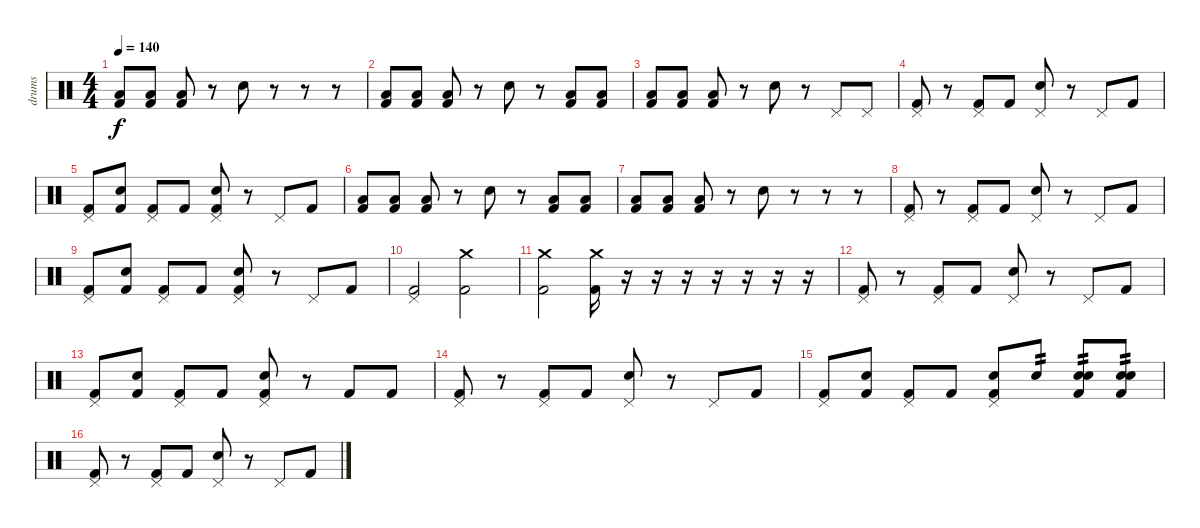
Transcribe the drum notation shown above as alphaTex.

\track ("drums" "drums") {instrument percussion}
\staff {score}
\articulation defaults
\ts (4 4)
\tempo 140
\clef neutral
\ks c
("Low Floor Tom (hit)" "Kick (hit) 2").8{dy f} ("Low Floor Tom (hit)" "Kick (hit) 2").8 ("Low Floor Tom (hit)" "Kick (hit) 2").8 r.8 "Snare (hit) 2".8 r.8 r.8 r.8 |
("Low Floor Tom (hit)" "Kick (hit) 2").8 ("Low Floor Tom (hit)" "Kick (hit) 2").8 ("Low Floor Tom (hit)" "Kick (hit) 2").8 r.8 "Snare (hit) 2".8 r.8 ("Low Floor Tom (hit)" "Kick (hit) 2").8 ("Low Floor Tom (hit)" "Kick (hit) 2").8 |
("Low Floor Tom (hit)" "Kick (hit) 2").8 ("Low Floor Tom (hit)" "Kick (hit) 2").8 ("Low Floor Tom (hit)" "Kick (hit) 2").8 r.8 "Snare (hit) 2".8 r.8 "Pedal Hi-Hat (hit)".8 "Pedal Hi-Hat (hit)".8 |
("Pedal Hi-Hat (hit)" "Kick (hit) 2").8 r.8 ("Pedal Hi-Hat (hit)" "Kick (hit) 2").8 "Kick (hit) 2".8 ("Pedal Hi-Hat (hit)" "Snare (hit) 2").8 r.8 "Pedal Hi-Hat (hit)".8 "Kick (hit) 2".8 |
("Kick (hit) 2" "Pedal Hi-Hat (hit)").8 ("Snare (hit) 2" "Kick (hit) 2").8 ("Kick (hit) 2" "Pedal Hi-Hat (hit)").8 "Kick (hit) 2".8 ("Snare (hit) 2" "Kick (hit) 2" "Pedal Hi-Hat (hit)").8 r.8 "Pedal Hi-Hat (hit)".8 "Kick (hit) 2".8 |
("Low Floor Tom (hit)" "Kick (hit) 2").8 ("Low Floor Tom (hit)" "Kick (hit) 2").8 ("Low Floor Tom (hit)" "Kick (hit) 2").8 r.8 "Snare (hit) 2".8 r.8 ("Low Floor Tom (hit)" "Kick (hit) 2").8 ("Low Floor Tom (hit)" "Kick (hit) 2").8 |
("Low Floor Tom (hit)" "Kick (hit) 2").8 ("Low Floor Tom (hit)" "Kick (hit) 2").8 ("Low Floor Tom (hit)" "Kick (hit) 2").8 r.8 "Snare (hit) 2".8 r.8 r.8 r.8 |
("Pedal Hi-Hat (hit)" "Kick (hit) 2").8 r.8 ("Pedal Hi-Hat (hit)" "Kick (hit) 2").8 "Kick (hit) 2".8 ("Pedal Hi-Hat (hit)" "Snare (hit) 2").8 r.8 "Pedal Hi-Hat (hit)".8 "Kick (hit) 2".8 |
("Kick (hit) 2" "Pedal Hi-Hat (hit)").8 ("Snare (hit) 2" "Kick (hit) 2").8 ("Kick (hit) 2" "Pedal Hi-Hat (hit)").8 "Kick (hit) 2".8 ("Snare (hit) 2" "Kick (hit) 2" "Pedal Hi-Hat (hit)").8 r.8 "Pedal Hi-Hat (hit)".8 "Kick (hit) 2".8 |
("Pedal Hi-Hat (hit)" "Kick (hit) 2").2 ("Crash medium (hit)" "Kick (hit) 2").2 |
("Crash medium (hit)" "Kick (hit) 2").2 ("Crash medium (hit)" "Kick (hit) 2").16 r.16 r.16 r.16 r.16 r.16 r.16 r.16 |
("Pedal Hi-Hat (hit)" "Kick (hit) 2").8 r.8 ("Pedal Hi-Hat (hit)" "Kick (hit) 2").8 "Kick (hit) 2".8 ("Pedal Hi-Hat (hit)" "Snare (hit) 2").8 r.8 "Pedal Hi-Hat (hit)".8 "Kick (hit) 2".8 |
("Kick (hit) 2" "Pedal Hi-Hat (hit)").8 ("Snare (hit) 2" "Kick (hit) 2").8 ("Kick (hit) 2" "Pedal Hi-Hat (hit)").8 "Kick (hit) 2".8 ("Snare (hit) 2" "Kick (hit) 2" "Pedal Hi-Hat (hit)").8 r.8 "Kick (hit) 2".8 "Kick (hit) 2".8 |
("Pedal Hi-Hat (hit)" "Kick (hit) 2").8 r.8 ("Pedal Hi-Hat (hit)" "Kick (hit) 2").8 "Kick (hit) 2".8 ("Pedal Hi-Hat (hit)" "Snare (hit) 2").8 r.8 "Pedal Hi-Hat (hit)".8 "Kick (hit) 2".8 |
("Kick (hit) 2" "Pedal Hi-Hat (hit)").8 ("Snare (hit) 2" "Kick (hit) 2").8 ("Kick (hit) 2" "Pedal Hi-Hat (hit)").8 "Kick (hit) 2".8 ("Snare (hit) 2" "Kick (hit) 2" "Pedal Hi-Hat (hit)").8 "Snare (hit) 2".8{tp 2} ("Snare (hit) 2" "Snare (hit) 2" "Kick (hit) 2").8{tp 2} ("Snare (hit) 2" "Kick (hit) 2" "Snare (hit) 2").8{tp 2} |
("Pedal Hi-Hat (hit)" "Kick (hit) 2").8 r.8 ("Pedal Hi-Hat (hit)" "Kick (hit) 2").8 "Kick (hit) 2".8 ("Pedal Hi-Hat (hit)" "Snare (hit) 2").8 r.8 "Pedal Hi-Hat (hit)".8 "Kick (hit) 2".8
